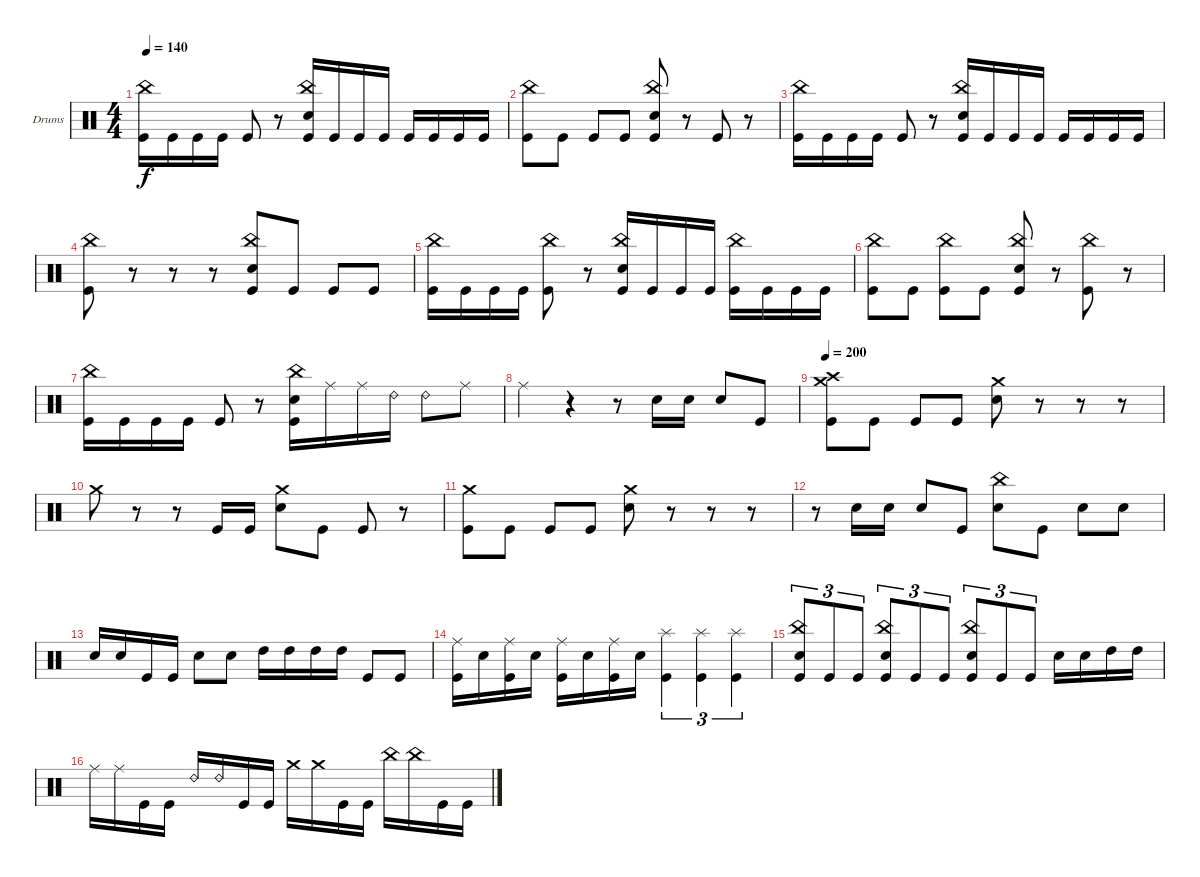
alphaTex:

\bracketExtendMode groupsimilarinstruments
\firstSystemTrackNameOrientation horizontal
\otherSystemsTrackNameOrientation horizontal
\track ("Drumkit" "Drums") {instrument percussion}
\staff {score}
\articulation defaults
\ts (4 4)
\tempo 140
\clef neutral
\ks c
("Kick (hit)" "China (hit)").16{dy f} "Kick (hit)".16 "Kick (hit)".16 "Kick (hit)".16 "Kick (hit)".8 r.8 ("Kick (hit)" "China (hit)" "Snare (hit) 2").16 "Kick (hit)".16 "Kick (hit)".16 "Kick (hit)".16 "Kick (hit)".16 "Kick (hit)".16 "Kick (hit)".16 "Kick (hit)".16 |
("Kick (hit)" "China (hit)").8 "Kick (hit)".8 "Kick (hit)".8 "Kick (hit)".8 ("Kick (hit)" "China (hit)" "Snare (hit) 2").8 r.8 "Kick (hit)".8 r.8 |
("Kick (hit)" "China (hit)").16 "Kick (hit)".16 "Kick (hit)".16 "Kick (hit)".16 "Kick (hit)".8 r.8 ("Kick (hit)" "China (hit)" "Snare (hit) 2").16 "Kick (hit)".16 "Kick (hit)".16 "Kick (hit)".16 "Kick (hit)".16 "Kick (hit)".16 "Kick (hit)".16 "Kick (hit)".16 |
("Kick (hit)" "China (hit)").8 r.8 r.8 r.8 ("Kick (hit)" "China (hit)" "Snare (hit) 2").8 "Kick (hit)".8 "Kick (hit)".8 "Kick (hit)".8 |
("Kick (hit)" "China (hit)").16 "Kick (hit)".16 "Kick (hit)".16 "Kick (hit)".16 ("Kick (hit)" "China (hit)").8 r.8 ("Kick (hit)" "China (hit)" "Snare (hit) 2").16 "Kick (hit)".16 "Kick (hit)".16 "Kick (hit)".16 ("Kick (hit)" "China (hit)").16 "Kick (hit)".16 "Kick (hit)".16 "Kick (hit)".16 |
("Kick (hit)" "China (hit)").8 "Kick (hit)".8 ("Kick (hit)" "China (hit)").8 "Kick (hit)".8 ("Kick (hit)" "China (hit)" "Snare (hit) 2").8 r.8 ("Kick (hit)" "China (hit)").8 r.8 |
("Kick (hit)" "China (hit)").16 "Kick (hit)".16 "Kick (hit)".16 "Kick (hit)".16 "Kick (hit)".8 r.8 ("Kick (hit)" "China (hit)" "Snare (hit) 2").16 "Ride (middle)".16 "Ride (middle)".16 "Ride (bell) 2".16 "Ride (bell) 2".8 "Ride (middle)".8 |
"Ride (middle)".4 r.4 r.8 "Snare (hit) 2".16 "Snare (hit) 2".16 "Snare (hit) 2".8 "Kick (hit)".8 |
\tempo 200
("Kick (hit)" "Crash medium (hit)" "Crash high (hit)").8 "Kick (hit)".8 "Kick (hit)".8 "Kick (hit)".8 ("Snare (hit) 2" "Crash medium (hit)").8 r.8 r.8 r.8 |
"Crash medium (hit)".8 r.8 r.8 "Kick (hit)".16 "Kick (hit)".16 ("Snare (hit) 2" "Crash medium (hit)").8 "Kick (hit)".8 "Kick (hit)".8 r.8 |
("Crash medium (hit)" "Kick (hit)").8 "Kick (hit)".8 "Kick (hit)".8 "Kick (hit)".8 ("Snare (hit) 2" "Crash medium (hit)").8 r.8 r.8 r.8 |
r.8 "Snare (hit) 2".16 "Snare (hit) 2".16 "Snare (hit) 2".8 "Kick (hit)".8 ("Snare (hit) 2" "China (hit)").8 "Kick (hit)".8 "Snare (hit) 2".8 "Snare (hit) 2".8 |
"Snare (hit) 2".16 "Snare (hit) 2".16 "Kick (hit)".16 "Kick (hit)".16 "Snare (hit) 2".8 "Snare (hit) 2".8 "High Tom (hit)".16 "High Tom (hit)".16 "High Tom (hit)".16 "High Tom (hit)".16 "Kick (hit)".8 "Kick (hit)".8 |
("Ride (middle)" "Kick (hit)").16 "Snare (hit) 2".16 ("Kick (hit)" "Ride (middle)").16 "Snare (hit) 2".16 ("Ride (middle)" "Kick (hit)").16 "Snare (hit) 2".16 ("Kick (hit)" "Ride (middle)").16 "Snare (hit) 2".16 ("Kick (hit)" "Splash (hit)").4{tu (3 2)} ("Kick (hit)" "Splash (hit)").4{tu (3 2)} ("Kick (hit)" "Splash (hit)").4{tu (3 2)} |
("Snare (hit) 2" "Kick (hit)" "China (hit)").8{tu (3 2)} "Kick (hit)".8{tu (3 2)} "Kick (hit)".8{tu (3 2)} ("Kick (hit)" "Snare (hit) 2" "China (hit)").8{tu (3 2)} "Kick (hit)".8{tu (3 2)} "Kick (hit)".8{tu (3 2)} ("Kick (hit)" "Snare (hit) 2" "China (hit)").8{tu (3 2)} "Kick (hit)".8{tu (3 2)} "Kick (hit)".8{tu (3 2)} "Snare (hit) 2".16 "Snare (hit) 2".16 "High Tom (hit)".16 "High Tom (hit)".16 |
"Ride (middle)".16 "Ride (middle)".16 "Kick (hit)".16 "Kick (hit)".16 "Ride (bell) 2".16 "Ride (bell) 2".16 "Kick (hit)".16 "Kick (hit)".16 "Crash medium (hit)".16 "Crash medium (hit)".16 "Kick (hit)".16 "Kick (hit)".16 "China (hit)".16 "China (hit)".16 "Kick (hit)".16 "Kick (hit)".16
